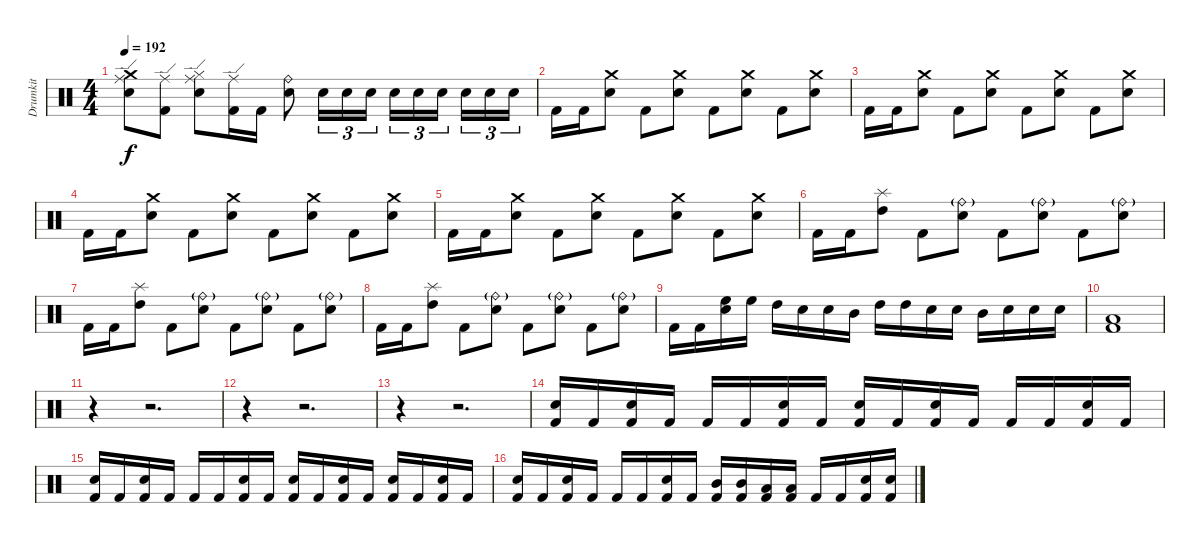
\track ("Drumkit" "Drumkit") {instrument percussion}
\staff {score}
\articulation defaults
\ts (4 4)
\tempo 192
\clef neutral
\ks c
("Snare (hit) 2" "Crash medium (hit)" "Ride (edge)").8{dy f} ("Kick (hit) 2" "Ride (edge)").8 ("Snare (hit) 2" "Hi-Hat (closed)" "Ride (edge)").8 ("Kick (hit) 2" "Ride (edge)").16 "Kick (hit) 2".16 ("Ride (bell)" "Snare (hit) 2").8 "Snare (hit) 2".16{tu (3 2)} "Snare (hit) 2".16{tu (3 2)} "Snare (hit) 2".16{tu (3 2)} "Snare (hit) 2".16{tu (3 2)} "Snare (hit) 2".16{tu (3 2)} "Snare (hit) 2".16{tu (3 2)} "Snare (hit) 2".16{tu (3 2)} "Snare (hit) 2".16{tu (3 2)} "Snare (hit) 2".16{tu (3 2)} |
"Kick (hit) 2".16 "Kick (hit) 2".16 ("Snare (hit) 2" "Crash medium (hit)").8 "Kick (hit) 2".8 ("Snare (hit) 2" "Crash medium (hit)").8 "Kick (hit) 2".8 ("Snare (hit) 2" "Crash medium (hit)").8 "Kick (hit) 2".8 ("Snare (hit) 2" "Crash medium (hit)").8 |
"Kick (hit) 2".16 "Kick (hit) 2".16 ("Snare (hit) 2" "Crash medium (hit)").8 "Kick (hit) 2".8 ("Snare (hit) 2" "Crash medium (hit)").8 "Kick (hit) 2".8 ("Snare (hit) 2" "Crash medium (hit)").8 "Kick (hit) 2".8 ("Snare (hit) 2" "Crash medium (hit)").8 |
"Kick (hit) 2".16 "Kick (hit) 2".16 ("Snare (hit) 2" "Crash medium (hit)").8 "Kick (hit) 2".8 ("Snare (hit) 2" "Crash medium (hit)").8 "Kick (hit) 2".8 ("Snare (hit) 2" "Crash medium (hit)").8 "Kick (hit) 2".8 ("Snare (hit) 2" "Crash medium (hit)").8 |
"Kick (hit) 2".16 "Kick (hit) 2".16 ("Snare (hit) 2" "Crash medium (hit)").8 "Kick (hit) 2".8 ("Snare (hit) 2" "Crash medium (hit)").8 "Kick (hit) 2".8 ("Snare (hit) 2" "Crash medium (hit)").8 "Kick (hit) 2".8 ("Snare (hit) 2" "Crash medium (hit)").8 |
"Kick (hit) 2".16 "Kick (hit) 2".16 ("High Tom (hit)" "Splash (hit)").8 "Kick (hit) 2".8 ("Snare (hit) 2" "Ride (bell)"{g}).8 "Kick (hit) 2".8 ("Snare (hit) 2" "Ride (bell)"{g}).8 "Kick (hit) 2".8 ("Snare (hit) 2" "Ride (bell)"{g}).8 |
"Kick (hit) 2".16 "Kick (hit) 2".16 ("High Tom (hit)" "Splash (hit)").8 "Kick (hit) 2".8 ("Snare (hit) 2" "Ride (bell)"{g}).8 "Kick (hit) 2".8 ("Snare (hit) 2" "Ride (bell)"{g}).8 "Kick (hit) 2".8 ("Snare (hit) 2" "Ride (bell)"{g}).8 |
"Kick (hit) 2".16 "Kick (hit) 2".16 ("High Tom (hit)" "Splash (hit)").8 "Kick (hit) 2".8 ("Snare (hit) 2" "Ride (bell)"{g}).8 "Kick (hit) 2".8 ("Snare (hit) 2" "Ride (bell)"{g}).8 "Kick (hit) 2".8 ("Snare (hit) 2" "Ride (bell)"{g}).8 |
"Kick (hit) 2".16 "Kick (hit) 2".16 ("Snare (hit) 2" "High Floor Tom (hit)").16 "High Floor Tom (hit)".16 "High Tom (hit)".16 "Snare (hit) 2".16 "Snare (hit) 2".16 "Mid Tom (hit)".16 "High Tom (hit)".16 "High Tom (hit)".16 "Snare (hit) 2".16 "Snare (hit) 2".16 "Mid Tom (hit)".16 "Snare (hit) 2".16 "Snare (hit) 2".16 "Snare (hit) 2".16 |
("Low Tom (hit)" "Kick (hit) 2").1 |
r.4 r.2{d} |
r.4 r.2{d} |
r.4 r.2{d} |
("Kick (hit) 2" "Snare (hit) 2").16 "Kick (hit) 2".16 ("Kick (hit) 2" "Snare (hit) 2").16 "Kick (hit) 2".16 "Kick (hit) 2".16 "Kick (hit) 2".16 ("Kick (hit) 2" "Snare (hit) 2").16 "Kick (hit) 2".16 ("Kick (hit) 2" "Snare (hit) 2").16 "Kick (hit) 2".16 ("Kick (hit) 2" "Snare (hit) 2").16 "Kick (hit) 2".16 "Kick (hit) 2".16 "Kick (hit) 2".16 ("Kick (hit) 2" "Snare (hit) 2").16 "Kick (hit) 2".16 |
("Kick (hit) 2" "Snare (hit) 2").16 "Kick (hit) 2".16 ("Kick (hit) 2" "Snare (hit) 2").16 "Kick (hit) 2".16 "Kick (hit) 2".16 "Kick (hit) 2".16 ("Kick (hit) 2" "Snare (hit) 2").16 "Kick (hit) 2".16 ("Kick (hit) 2" "Snare (hit) 2").16 "Kick (hit) 2".16 ("Kick (hit) 2" "Snare (hit) 2").16 "Kick (hit) 2".16 ("Kick (hit) 2" "Snare (hit) 2").16 "Kick (hit) 2".16 ("Kick (hit) 2" "Snare (hit) 2").16 "Kick (hit) 2".16 |
("Kick (hit) 2" "Snare (hit) 2").16 "Kick (hit) 2".16 ("Kick (hit) 2" "Snare (hit) 2").16 "Kick (hit) 2".16 "Kick (hit) 2".16 "Kick (hit) 2".16 ("Kick (hit) 2" "Snare (hit) 2").16 "Kick (hit) 2".16 ("Kick (hit) 2" "Mid Tom (hit)").16 ("Kick (hit) 2" "Mid Tom (hit)").16 ("Kick (hit) 2" "Low Tom (hit)").16 ("Kick (hit) 2" "Low Tom (hit)").16 "Kick (hit) 2".16 "Kick (hit) 2".16 ("Kick (hit) 2" "Snare (hit) 2").16 ("Kick (hit) 2" "Snare (hit) 2").16
